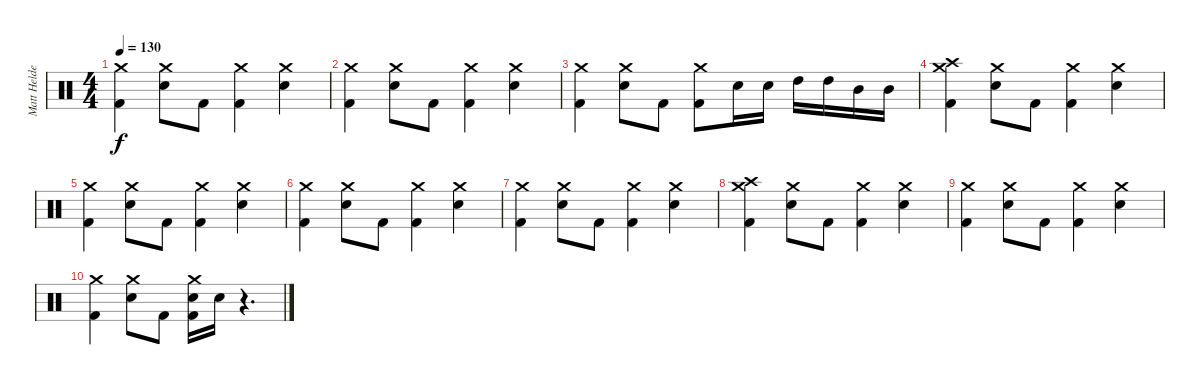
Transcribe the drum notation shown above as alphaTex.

\track ("Matt Helders (Percussion)" "Matt Helde") {instrument percussion}
\staff {score}
\articulation defaults
\ts (4 4)
\tempo 130
\clef neutral
\ks c
("Crash medium (hit)" "Kick (hit) 2").4{dy f} ("Crash medium (hit)" "Snare (hit) 2").8 "Kick (hit) 2".8 ("Crash medium (hit)" "Kick (hit) 2").4 ("Crash medium (hit)" "Snare (hit) 2").4 |
("Crash medium (hit)" "Kick (hit) 2").4 ("Crash medium (hit)" "Snare (hit) 2").8 "Kick (hit) 2".8 ("Crash medium (hit)" "Kick (hit) 2").4 ("Crash medium (hit)" "Snare (hit) 2").4 |
("Crash medium (hit)" "Kick (hit) 2").4 ("Crash medium (hit)" "Snare (hit) 2").8 "Kick (hit) 2".8 ("Crash medium (hit)" "Kick (hit) 2").8 "Snare (hit) 2".16 "Snare (hit) 2".16 "High Tom (hit)".16 "High Tom (hit)".16 "Mid Tom (hit)".16 "Mid Tom (hit)".16 |
("Crash medium (hit)" "Crash high (hit)" "Kick (hit) 2").4 ("Crash medium (hit)" "Snare (hit) 2").8 "Kick (hit) 2".8 ("Crash medium (hit)" "Kick (hit) 2").4 ("Crash medium (hit)" "Snare (hit) 2").4 |
("Crash medium (hit)" "Kick (hit) 2").4 ("Crash medium (hit)" "Snare (hit) 2").8 "Kick (hit) 2".8 ("Crash medium (hit)" "Kick (hit) 2").4 ("Crash medium (hit)" "Snare (hit) 2").4 |
("Crash medium (hit)" "Kick (hit) 2").4 ("Crash medium (hit)" "Snare (hit) 2").8 "Kick (hit) 2".8 ("Crash medium (hit)" "Kick (hit) 2").4 ("Crash medium (hit)" "Snare (hit) 2").4 |
("Crash medium (hit)" "Kick (hit) 2").4 ("Crash medium (hit)" "Snare (hit) 2").8 "Kick (hit) 2".8 ("Crash medium (hit)" "Kick (hit) 2").4 ("Crash medium (hit)" "Snare (hit) 2").4 |
("Crash medium (hit)" "Crash high (hit)" "Kick (hit) 2").4 ("Crash medium (hit)" "Snare (hit) 2").8 "Kick (hit) 2".8 ("Crash medium (hit)" "Kick (hit) 2").4 ("Crash medium (hit)" "Snare (hit) 2").4 |
("Crash medium (hit)" "Kick (hit) 2").4 ("Crash medium (hit)" "Snare (hit) 2").8 "Kick (hit) 2".8 ("Crash medium (hit)" "Kick (hit) 2").4 ("Crash medium (hit)" "Snare (hit) 2").4 |
("Crash medium (hit)" "Kick (hit) 2").4 ("Crash medium (hit)" "Snare (hit) 2").8 "Kick (hit) 2".8 ("Crash medium (hit)" "Snare (hit) 2" "Kick (hit) 2").16 "Snare (hit) 2".16 r.4{d}
